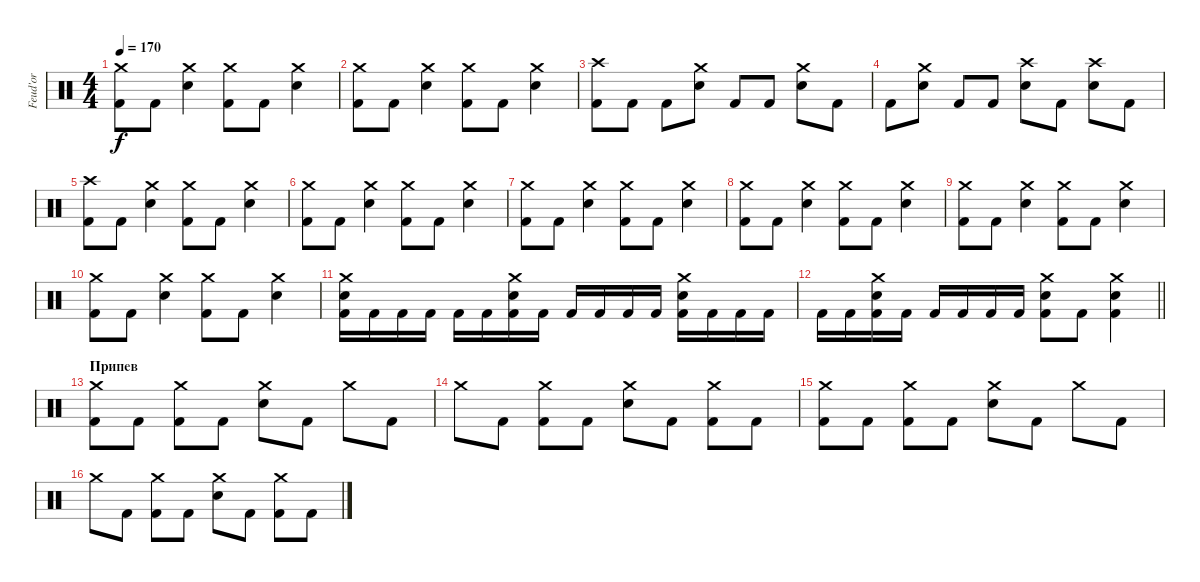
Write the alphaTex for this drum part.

\track ("Feud'or" "Feud'or") {instrument percussion}
\staff {score}
\articulation defaults
\ts (4 4)
\tempo 170
\clef neutral
\ks c
("Crash medium (hit)" "Kick (hit) 2").8{dy f} "Kick (hit) 2".8 ("Crash medium (hit)" "Electric Snare (hit)").4 ("Crash medium (hit)" "Kick (hit) 2").8 "Kick (hit) 2".8 ("Crash medium (hit)" "Electric Snare (hit)").4 |
("Crash medium (hit)" "Kick (hit) 2").8 "Kick (hit) 2".8 ("Crash medium (hit)" "Electric Snare (hit)").4 ("Crash medium (hit)" "Kick (hit) 2").8 "Kick (hit) 2".8 ("Crash medium (hit)" "Electric Snare (hit)").4 |
("Crash high (hit)" "Kick (hit) 2").8 "Kick (hit) 2".8 "Kick (hit) 2".8 ("Crash medium (hit)" "Electric Snare (hit)").8 "Kick (hit) 2".8 "Kick (hit) 2".8 ("Crash medium (hit)" "Electric Snare (hit)").8 "Kick (hit) 2".8 |
"Kick (hit) 2".8 ("Crash medium (hit)" "Electric Snare (hit)").8 "Kick (hit) 2".8 "Kick (hit) 2".8 ("Crash high (hit)" "Electric Snare (hit)").8 "Kick (hit) 2".8 ("Crash high (hit)" "Electric Snare (hit)").8 "Kick (hit) 2".8 |
("Crash high (hit)" "Kick (hit) 2").8 "Kick (hit) 2".8 ("Crash medium (hit)" "Electric Snare (hit)").4 ("Crash medium (hit)" "Kick (hit) 2").8 "Kick (hit) 2".8 ("Crash medium (hit)" "Electric Snare (hit)").4 |
("Crash medium (hit)" "Kick (hit) 2").8 "Kick (hit) 2".8 ("Crash medium (hit)" "Electric Snare (hit)").4 ("Crash medium (hit)" "Kick (hit) 2").8 "Kick (hit) 2".8 ("Crash medium (hit)" "Electric Snare (hit)").4 |
("Crash medium (hit)" "Kick (hit) 2").8 "Kick (hit) 2".8 ("Crash medium (hit)" "Electric Snare (hit)").4 ("Crash medium (hit)" "Kick (hit) 2").8 "Kick (hit) 2".8 ("Crash medium (hit)" "Electric Snare (hit)").4 |
("Crash medium (hit)" "Kick (hit) 2").8 "Kick (hit) 2".8 ("Crash medium (hit)" "Electric Snare (hit)").4 ("Crash medium (hit)" "Kick (hit) 2").8 "Kick (hit) 2".8 ("Crash medium (hit)" "Electric Snare (hit)").4 |
("Crash medium (hit)" "Kick (hit) 2").8 "Kick (hit) 2".8 ("Crash medium (hit)" "Electric Snare (hit)").4 ("Crash medium (hit)" "Kick (hit) 2").8 "Kick (hit) 2".8 ("Crash medium (hit)" "Electric Snare (hit)").4 |
("Crash medium (hit)" "Kick (hit) 2").8 "Kick (hit) 2".8 ("Crash medium (hit)" "Electric Snare (hit)").4 ("Crash medium (hit)" "Kick (hit) 2").8 "Kick (hit) 2".8 ("Crash medium (hit)" "Electric Snare (hit)").4 |
("Crash medium (hit)" "Electric Snare (hit)" "Kick (hit) 2").16 "Kick (hit) 2".16 "Kick (hit) 2".16 "Kick (hit) 2".16 "Kick (hit) 2".16 "Kick (hit) 2".16 ("Crash medium (hit)" "Electric Snare (hit)" "Kick (hit) 2").16 "Kick (hit) 2".16 "Kick (hit) 2".16 "Kick (hit) 2".16 "Kick (hit) 2".16 "Kick (hit) 2".16 ("Crash medium (hit)" "Electric Snare (hit)" "Kick (hit) 2").16 "Kick (hit) 2".16 "Kick (hit) 2".16 "Kick (hit) 2".16 |
\barLineRight lightlight "Kick (hit) 2".16 "Kick (hit) 2".16
("Crash medium (hit)" "Electric Snare (hit)" "Kick (hit) 2").16 "Kick (hit) 2".16 "Kick (hit) 2".16 "Kick (hit) 2".16 "Kick (hit) 2".16 "Kick (hit) 2".16 ("Crash medium (hit)" "Electric Snare (hit)" "Kick (hit) 2").8 "Kick (hit) 2".8 ("Crash medium (hit)" "Electric Snare (hit)" "Kick (hit) 2").4 |
\section ("" "Припев")
("Crash medium (hit)" "Kick (hit) 2").8 "Kick (hit) 2".8 ("Crash medium (hit)" "Kick (hit) 2").8 "Kick (hit) 2".8 ("Crash medium (hit)" "Electric Snare (hit)").8 "Kick (hit) 2".8 "Crash medium (hit)".8 "Kick (hit) 2".8 |
"Crash medium (hit)".8 "Kick (hit) 2".8 ("Crash medium (hit)" "Kick (hit) 2").8 "Kick (hit) 2".8 ("Crash medium (hit)" "Electric Snare (hit)").8 "Kick (hit) 2".8 ("Crash medium (hit)" "Kick (hit) 2").8 "Kick (hit) 2".8 |
("Crash medium (hit)" "Kick (hit) 2").8 "Kick (hit) 2".8 ("Crash medium (hit)" "Kick (hit) 2").8 "Kick (hit) 2".8 ("Crash medium (hit)" "Electric Snare (hit)").8 "Kick (hit) 2".8 "Crash medium (hit)".8 "Kick (hit) 2".8 |
"Crash medium (hit)".8 "Kick (hit) 2".8 ("Crash medium (hit)" "Kick (hit) 2").8 "Kick (hit) 2".8 ("Crash medium (hit)" "Electric Snare (hit)").8 "Kick (hit) 2".8 ("Crash medium (hit)" "Kick (hit) 2").8 "Kick (hit) 2".8
